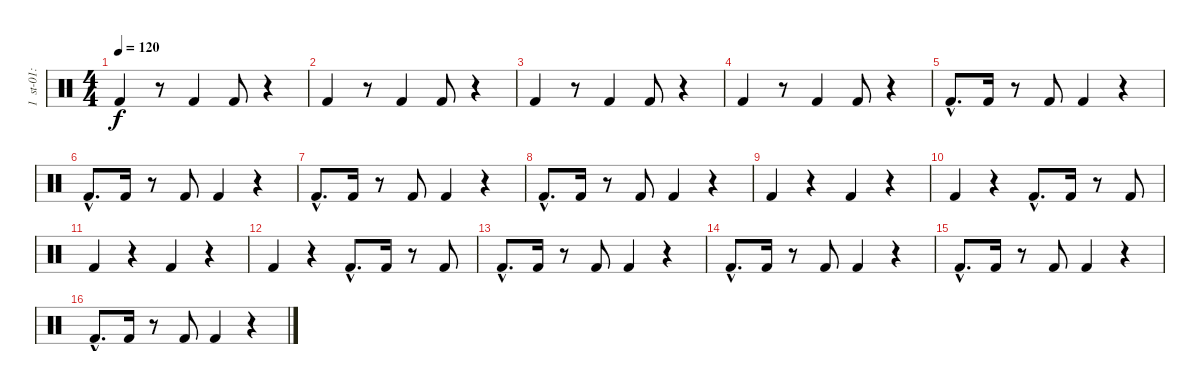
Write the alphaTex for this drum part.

\track (" 1  st-01:bassdrum2" " 1  st-01:") {instrument percussion}
\staff {score}
\articulation defaults
\ts (4 4)
\tempo 120
\clef neutral
\ks c "Kick (hit) 2".4{dy f}
r.8 "Kick (hit) 2".4 "Kick (hit) 2".8 r.4 |
"Kick (hit) 2".4 r.8 "Kick (hit) 2".4 "Kick (hit) 2".8 r.4 |
"Kick (hit) 2".4 r.8 "Kick (hit) 2".4 "Kick (hit) 2".8 r.4 |
"Kick (hit) 2".4 r.8 "Kick (hit) 2".4 "Kick (hit) 2".8 r.4 |
"Kick (hit) 2"{hac}.8{d} "Kick (hit) 2".16 r.8 "Kick (hit) 2".8 "Kick (hit) 2".4 r.4 |
"Kick (hit) 2"{hac}.8{d} "Kick (hit) 2".16 r.8 "Kick (hit) 2".8 "Kick (hit) 2".4 r.4 |
"Kick (hit) 2"{hac}.8{d} "Kick (hit) 2".16 r.8 "Kick (hit) 2".8 "Kick (hit) 2".4 r.4 |
"Kick (hit) 2"{hac}.8{d} "Kick (hit) 2".16 r.8 "Kick (hit) 2".8 "Kick (hit) 2".4 r.4 |
"Kick (hit) 2".4 r.4 "Kick (hit) 2".4 r.4 |
"Kick (hit) 2".4 r.4 "Kick (hit) 2"{hac}.8{d} "Kick (hit) 2".16 r.8 "Kick (hit) 2".8 |
"Kick (hit) 2".4 r.4 "Kick (hit) 2".4 r.4 |
"Kick (hit) 2".4 r.4 "Kick (hit) 2"{hac}.8{d} "Kick (hit) 2".16 r.8 "Kick (hit) 2".8 |
"Kick (hit) 2"{hac}.8{d} "Kick (hit) 2".16 r.8 "Kick (hit) 2".8 "Kick (hit) 2".4 r.4 |
"Kick (hit) 2"{hac}.8{d} "Kick (hit) 2".16 r.8 "Kick (hit) 2".8 "Kick (hit) 2".4 r.4 |
"Kick (hit) 2"{hac}.8{d} "Kick (hit) 2".16 r.8 "Kick (hit) 2".8 "Kick (hit) 2".4 r.4 |
"Kick (hit) 2"{hac}.8{d} "Kick (hit) 2".16 r.8 "Kick (hit) 2".8 "Kick (hit) 2".4 r.4
